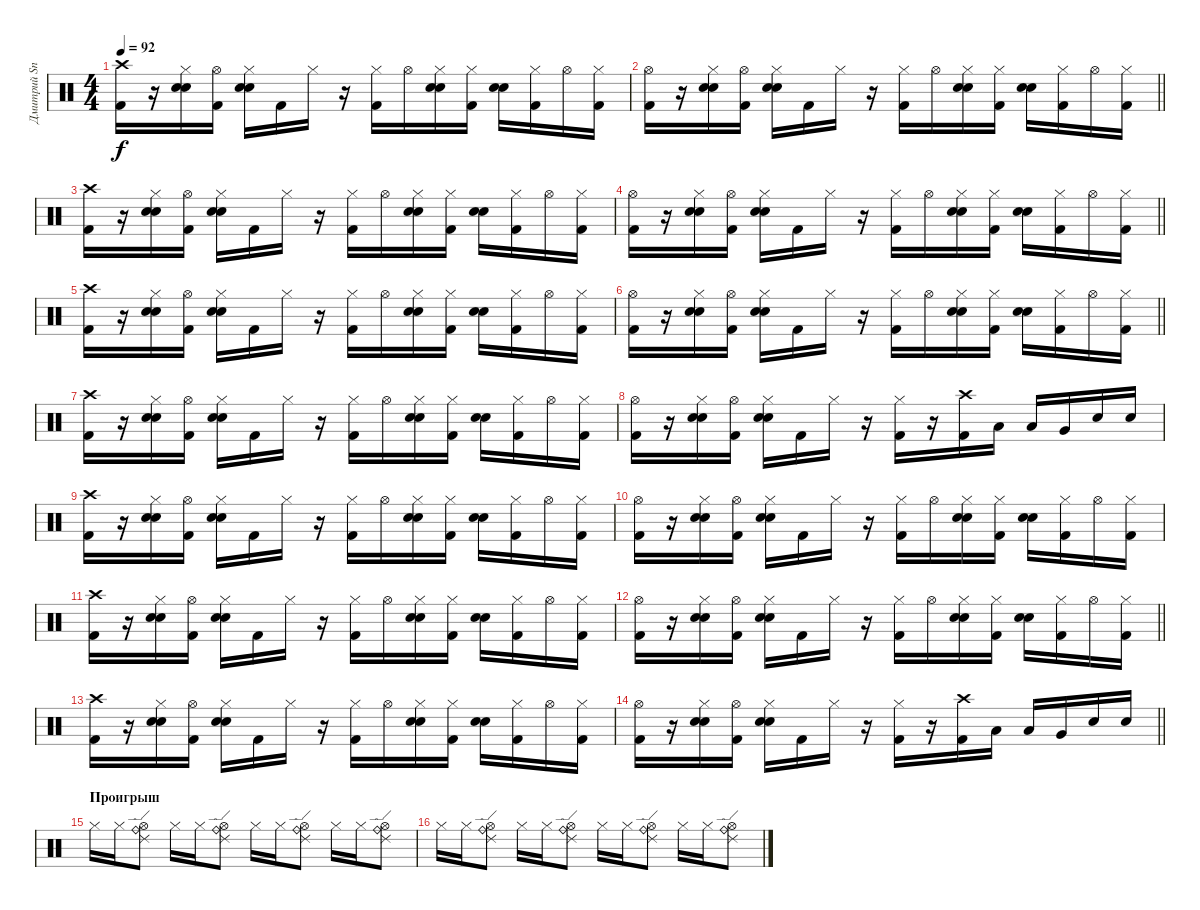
\track ("Дмитрий Snake Хакимов" "Дмитрий Sn") {instrument percussion}
\staff {score}
\articulation defaults
\ts (4 4)
\section ("" "")
\tempo 92
\clef neutral
\ks c
("Crash high (hit)" "Kick (hit) 2").16{dy f} r.16 ("Hi-Hat (closed)" "Snare (hit) 2" "Electric Snare (hit)").16 ("Hi-Hat (open)" "Kick (hit) 2").16 ("Hi-Hat (closed)" "Snare (hit) 2" "Electric Snare (hit)").16 "Kick (hit) 2".16 "Hi-Hat (closed)".16 r.16 ("Hi-Hat (closed)" "Kick (hit) 2").16 "Hi-Hat (open)".16 ("Hi-Hat (closed)" "Snare (hit) 2" "Electric Snare (hit)").16 ("Hi-Hat (closed)" "Kick (hit) 2").16 ("Snare (hit) 2" "Electric Snare (hit)").16 ("Hi-Hat (closed)" "Kick (hit) 2").16 "Hi-Hat (open)".16 ("Hi-Hat (closed)" "Kick (hit) 2").16 |
\barLineRight lightlight
("Hi-Hat (open)" "Kick (hit) 2").16 r.16 ("Hi-Hat (closed)" "Snare (hit) 2" "Electric Snare (hit)").16 ("Hi-Hat (open)" "Kick (hit) 2").16 ("Hi-Hat (closed)" "Snare (hit) 2" "Electric Snare (hit)").16 "Kick (hit) 2".16 "Hi-Hat (closed)".16 r.16 ("Hi-Hat (closed)" "Kick (hit) 2").16 "Hi-Hat (open)".16 ("Hi-Hat (closed)" "Snare (hit) 2" "Electric Snare (hit)").16 ("Hi-Hat (closed)" "Kick (hit) 2").16 ("Snare (hit) 2" "Electric Snare (hit)").16 ("Hi-Hat (closed)" "Kick (hit) 2").16 "Hi-Hat (open)".16 ("Hi-Hat (closed)" "Kick (hit) 2").16 |
("Crash high (hit)" "Kick (hit) 2").16 r.16 ("Hi-Hat (closed)" "Snare (hit) 2" "Electric Snare (hit)").16 ("Hi-Hat (open)" "Kick (hit) 2").16 ("Hi-Hat (closed)" "Snare (hit) 2" "Electric Snare (hit)").16 "Kick (hit) 2".16 "Hi-Hat (closed)".16 r.16 ("Hi-Hat (closed)" "Kick (hit) 2").16 "Hi-Hat (open)".16 ("Hi-Hat (closed)" "Snare (hit) 2" "Electric Snare (hit)").16 ("Hi-Hat (closed)" "Kick (hit) 2").16 ("Snare (hit) 2" "Electric Snare (hit)").16 ("Hi-Hat (closed)" "Kick (hit) 2").16 "Hi-Hat (open)".16 ("Hi-Hat (closed)" "Kick (hit) 2").16 |
\barLineRight lightlight
("Hi-Hat (open)" "Kick (hit) 2").16 r.16 ("Hi-Hat (closed)" "Snare (hit) 2" "Electric Snare (hit)").16 ("Hi-Hat (open)" "Kick (hit) 2").16 ("Hi-Hat (closed)" "Snare (hit) 2" "Electric Snare (hit)").16 "Kick (hit) 2".16 "Hi-Hat (closed)".16 r.16 ("Hi-Hat (closed)" "Kick (hit) 2").16 "Hi-Hat (open)".16 ("Hi-Hat (closed)" "Snare (hit) 2" "Electric Snare (hit)").16 ("Hi-Hat (closed)" "Kick (hit) 2").16 ("Snare (hit) 2" "Electric Snare (hit)").16 ("Hi-Hat (closed)" "Kick (hit) 2").16 "Hi-Hat (open)".16 ("Hi-Hat (closed)" "Kick (hit) 2").16 |
("Crash high (hit)" "Kick (hit) 2").16 r.16 ("Hi-Hat (closed)" "Snare (hit) 2" "Electric Snare (hit)").16 ("Hi-Hat (open)" "Kick (hit) 2").16 ("Hi-Hat (closed)" "Snare (hit) 2" "Electric Snare (hit)").16 "Kick (hit) 2".16 "Hi-Hat (closed)".16 r.16 ("Hi-Hat (closed)" "Kick (hit) 2").16 "Hi-Hat (open)".16 ("Hi-Hat (closed)" "Snare (hit) 2" "Electric Snare (hit)").16 ("Hi-Hat (closed)" "Kick (hit) 2").16 ("Snare (hit) 2" "Electric Snare (hit)").16 ("Hi-Hat (closed)" "Kick (hit) 2").16 "Hi-Hat (open)".16 ("Hi-Hat (closed)" "Kick (hit) 2").16 |
\barLineRight lightlight
("Hi-Hat (open)" "Kick (hit) 2").16 r.16 ("Hi-Hat (closed)" "Snare (hit) 2" "Electric Snare (hit)").16 ("Hi-Hat (open)" "Kick (hit) 2").16 ("Hi-Hat (closed)" "Snare (hit) 2" "Electric Snare (hit)").16 "Kick (hit) 2".16 "Hi-Hat (closed)".16 r.16 ("Hi-Hat (closed)" "Kick (hit) 2").16 "Hi-Hat (open)".16 ("Hi-Hat (closed)" "Snare (hit) 2" "Electric Snare (hit)").16 ("Hi-Hat (closed)" "Kick (hit) 2").16 ("Snare (hit) 2" "Electric Snare (hit)").16 ("Hi-Hat (closed)" "Kick (hit) 2").16 "Hi-Hat (open)".16 ("Hi-Hat (closed)" "Kick (hit) 2").16 |
\section ("" "")
("Crash high (hit)" "Kick (hit) 2").16 r.16 ("Hi-Hat (closed)" "Snare (hit) 2" "Electric Snare (hit)").16 ("Hi-Hat (open)" "Kick (hit) 2").16 ("Hi-Hat (closed)" "Snare (hit) 2" "Electric Snare (hit)").16 "Kick (hit) 2".16 "Hi-Hat (closed)".16 r.16 ("Hi-Hat (closed)" "Kick (hit) 2").16 "Hi-Hat (open)".16 ("Hi-Hat (closed)" "Snare (hit) 2" "Electric Snare (hit)").16 ("Hi-Hat (closed)" "Kick (hit) 2").16 ("Snare (hit) 2" "Electric Snare (hit)").16 ("Hi-Hat (closed)" "Kick (hit) 2").16 "Hi-Hat (open)".16 ("Hi-Hat (closed)" "Kick (hit) 2").16 |
("Hi-Hat (open)" "Kick (hit) 2").16 r.16 ("Hi-Hat (closed)" "Snare (hit) 2" "Electric Snare (hit)").16 ("Hi-Hat (open)" "Kick (hit) 2").16 ("Hi-Hat (closed)" "Snare (hit) 2" "Electric Snare (hit)").16 "Kick (hit) 2".16 "Hi-Hat (closed)".16 r.16 ("Hi-Hat (closed)" "Kick (hit) 2").16 r.16 ("Crash high (hit)" "Kick (hit) 2").16 "Low Tom (hit)".16 "Low Tom (hit)".16 "Very Low Tom (hit)".16 "Electric Snare (hit)".16 "Electric Snare (hit)".16 |
("Crash high (hit)" "Kick (hit) 2").16 r.16 ("Hi-Hat (closed)" "Snare (hit) 2" "Electric Snare (hit)").16 ("Hi-Hat (open)" "Kick (hit) 2").16 ("Hi-Hat (closed)" "Snare (hit) 2" "Electric Snare (hit)").16 "Kick (hit) 2".16 "Hi-Hat (closed)".16 r.16 ("Hi-Hat (closed)" "Kick (hit) 2").16 "Hi-Hat (open)".16 ("Hi-Hat (closed)" "Snare (hit) 2" "Electric Snare (hit)").16 ("Hi-Hat (closed)" "Kick (hit) 2").16 ("Snare (hit) 2" "Electric Snare (hit)").16 ("Hi-Hat (closed)" "Kick (hit) 2").16 "Hi-Hat (open)".16 ("Hi-Hat (closed)" "Kick (hit) 2").16 |
("Hi-Hat (open)" "Kick (hit) 2").16 r.16 ("Hi-Hat (closed)" "Snare (hit) 2" "Electric Snare (hit)").16 ("Hi-Hat (open)" "Kick (hit) 2").16 ("Hi-Hat (closed)" "Snare (hit) 2" "Electric Snare (hit)").16 "Kick (hit) 2".16 "Hi-Hat (closed)".16 r.16 ("Hi-Hat (closed)" "Kick (hit) 2").16 "Hi-Hat (open)".16 ("Hi-Hat (closed)" "Snare (hit) 2" "Electric Snare (hit)").16 ("Hi-Hat (closed)" "Kick (hit) 2").16 ("Snare (hit) 2" "Electric Snare (hit)").16 ("Hi-Hat (closed)" "Kick (hit) 2").16 "Hi-Hat (open)".16 ("Hi-Hat (closed)" "Kick (hit) 2").16 |
("Crash high (hit)" "Kick (hit) 2").16 r.16 ("Hi-Hat (closed)" "Snare (hit) 2" "Electric Snare (hit)").16 ("Hi-Hat (open)" "Kick (hit) 2").16 ("Hi-Hat (closed)" "Snare (hit) 2" "Electric Snare (hit)").16 "Kick (hit) 2".16 "Hi-Hat (closed)".16 r.16 ("Hi-Hat (closed)" "Kick (hit) 2").16 "Hi-Hat (open)".16 ("Hi-Hat (closed)" "Snare (hit) 2" "Electric Snare (hit)").16 ("Hi-Hat (closed)" "Kick (hit) 2").16 ("Snare (hit) 2" "Electric Snare (hit)").16 ("Hi-Hat (closed)" "Kick (hit) 2").16 "Hi-Hat (open)".16 ("Hi-Hat (closed)" "Kick (hit) 2").16 |
\barLineRight lightlight
("Hi-Hat (open)" "Kick (hit) 2").16 r.16 ("Hi-Hat (closed)" "Snare (hit) 2" "Electric Snare (hit)").16 ("Hi-Hat (open)" "Kick (hit) 2").16 ("Hi-Hat (closed)" "Snare (hit) 2" "Electric Snare (hit)").16 "Kick (hit) 2".16 "Hi-Hat (closed)".16 r.16 ("Hi-Hat (closed)" "Kick (hit) 2").16 "Hi-Hat (open)".16 ("Hi-Hat (closed)" "Snare (hit) 2" "Electric Snare (hit)").16 ("Hi-Hat (closed)" "Kick (hit) 2").16 ("Snare (hit) 2" "Electric Snare (hit)").16 ("Hi-Hat (closed)" "Kick (hit) 2").16 "Hi-Hat (open)".16 ("Hi-Hat (closed)" "Kick (hit) 2").16 |
("Crash high (hit)" "Kick (hit) 2").16 r.16 ("Hi-Hat (closed)" "Snare (hit) 2" "Electric Snare (hit)").16 ("Hi-Hat (open)" "Kick (hit) 2").16 ("Hi-Hat (closed)" "Snare (hit) 2" "Electric Snare (hit)").16 "Kick (hit) 2".16 "Hi-Hat (closed)".16 r.16 ("Hi-Hat (closed)" "Kick (hit) 2").16 "Hi-Hat (open)".16 ("Hi-Hat (closed)" "Snare (hit) 2" "Electric Snare (hit)").16 ("Hi-Hat (closed)" "Kick (hit) 2").16 ("Snare (hit) 2" "Electric Snare (hit)").16 ("Hi-Hat (closed)" "Kick (hit) 2").16 "Hi-Hat (open)".16 ("Hi-Hat (closed)" "Kick (hit) 2").16 |
\barLineRight lightlight
("Hi-Hat (open)" "Kick (hit) 2").16 r.16 ("Hi-Hat (closed)" "Snare (hit) 2" "Electric Snare (hit)").16 ("Hi-Hat (open)" "Kick (hit) 2").16 ("Hi-Hat (closed)" "Snare (hit) 2" "Electric Snare (hit)").16 "Kick (hit) 2".16 "Hi-Hat (closed)".16 r.16 ("Hi-Hat (closed)" "Kick (hit) 2").16 r.16 ("Crash high (hit)" "Kick (hit) 2").16 "Low Tom (hit)".16 "Low Tom (hit)".16 "Very Low Tom (hit)".16 "Electric Snare (hit)".16 "Electric Snare (hit)".16 |
\section ("" "Проигрыш")
"Hi-Hat (closed)".16 "Hi-Hat (closed)".16 ("Hi-Hat (open)" "Ride (bell)" "Ride (edge) 2").8 "Hi-Hat (closed)".16 "Hi-Hat (closed)".16 ("Hi-Hat (open)" "Ride (bell)" "Ride (edge) 2").8 "Hi-Hat (closed)".16 "Hi-Hat (closed)".16 ("Hi-Hat (open)" "Ride (bell)" "Ride (edge) 2").8 "Hi-Hat (closed)".16 "Hi-Hat (closed)".16 ("Hi-Hat (open)" "Ride (bell)" "Ride (edge) 2").8 |
"Hi-Hat (closed)".16 "Hi-Hat (closed)".16 ("Hi-Hat (open)" "Ride (bell)" "Ride (edge) 2").8 "Hi-Hat (closed)".16 "Hi-Hat (closed)".16 ("Hi-Hat (open)" "Ride (bell)" "Ride (edge) 2").8 "Hi-Hat (closed)".16 "Hi-Hat (closed)".16 ("Hi-Hat (open)" "Ride (bell)" "Ride (edge) 2").8 "Hi-Hat (closed)".16 "Hi-Hat (closed)".16 ("Hi-Hat (open)" "Ride (bell)" "Ride (edge) 2").8
